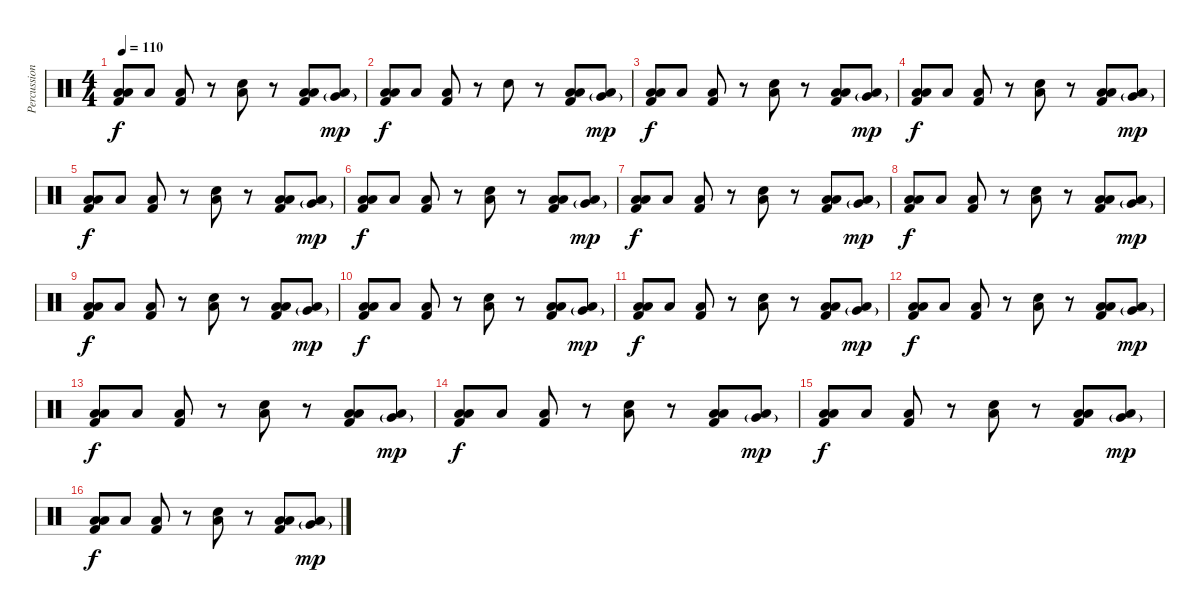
\track ("Percussions" "Percussion") {instrument percussion}
\staff {score}
\articulation defaults
\ts (4 4)
\tempo 110
\clef neutral
\ks c
("Low Tom (hit)" "Low Floor Tom (hit)" "Kick (hit) 2").8{dy f} "Low Floor Tom (hit)".8 ("Low Tom (hit)" "Kick (hit) 2").8 r.8 ("Low Floor Tom (hit)" "Snare (hit) 2").8 r.8 ("Low Tom (hit)" "Low Floor Tom (hit)" "Kick (hit) 2").8 ("Very Low Tom (hit)"{g} "Low Floor Tom (hit)").8{dy mp} |
("Low Tom (hit)" "Low Floor Tom (hit)" "Kick (hit) 2").8{dy f} "Low Floor Tom (hit)".8 ("Low Tom (hit)" "Kick (hit) 2").8 r.8 "Snare (hit) 2".8 r.8 ("Low Tom (hit)" "Low Floor Tom (hit)" "Kick (hit) 2").8 ("Very Low Tom (hit)"{g} "Low Floor Tom (hit)").8{dy mp} |
("Low Tom (hit)" "Low Floor Tom (hit)" "Kick (hit) 2").8{dy f} "Low Floor Tom (hit)".8 ("Low Tom (hit)" "Kick (hit) 2").8 r.8 ("Low Floor Tom (hit)" "Snare (hit) 2").8 r.8 ("Low Tom (hit)" "Low Floor Tom (hit)" "Kick (hit) 2").8 ("Very Low Tom (hit)"{g} "Low Floor Tom (hit)").8{dy mp} |
("Low Tom (hit)" "Low Floor Tom (hit)" "Kick (hit) 2").8{dy f} "Low Floor Tom (hit)".8 ("Low Tom (hit)" "Kick (hit) 2").8 r.8 ("Low Floor Tom (hit)" "Snare (hit) 2").8 r.8 ("Low Tom (hit)" "Low Floor Tom (hit)" "Kick (hit) 2").8 ("Very Low Tom (hit)"{g} "Low Floor Tom (hit)").8{dy mp} |
("Low Tom (hit)" "Low Floor Tom (hit)" "Kick (hit) 2").8{dy f} "Low Floor Tom (hit)".8 ("Low Tom (hit)" "Kick (hit) 2").8 r.8 ("Low Floor Tom (hit)" "Snare (hit) 2").8 r.8 ("Low Tom (hit)" "Low Floor Tom (hit)" "Kick (hit) 2").8 ("Very Low Tom (hit)"{g} "Low Floor Tom (hit)").8{dy mp} |
("Low Tom (hit)" "Low Floor Tom (hit)" "Kick (hit) 2").8{dy f} "Low Floor Tom (hit)".8 ("Low Tom (hit)" "Kick (hit) 2").8 r.8 ("Low Floor Tom (hit)" "Snare (hit) 2").8 r.8 ("Low Tom (hit)" "Low Floor Tom (hit)" "Kick (hit) 2").8 ("Very Low Tom (hit)"{g} "Low Floor Tom (hit)").8{dy mp} |
("Low Tom (hit)" "Low Floor Tom (hit)" "Kick (hit) 2").8{dy f} "Low Floor Tom (hit)".8 ("Low Tom (hit)" "Kick (hit) 2").8 r.8 ("Low Floor Tom (hit)" "Snare (hit) 2").8 r.8 ("Low Tom (hit)" "Low Floor Tom (hit)" "Kick (hit) 2").8 ("Very Low Tom (hit)"{g} "Low Floor Tom (hit)").8{dy mp} |
("Low Tom (hit)" "Low Floor Tom (hit)" "Kick (hit) 2").8{dy f} "Low Floor Tom (hit)".8 ("Low Tom (hit)" "Kick (hit) 2").8 r.8 ("Low Floor Tom (hit)" "Snare (hit) 2").8 r.8 ("Low Tom (hit)" "Low Floor Tom (hit)" "Kick (hit) 2").8 ("Very Low Tom (hit)"{g} "Low Floor Tom (hit)").8{dy mp} |
("Low Tom (hit)" "Low Floor Tom (hit)" "Kick (hit) 2").8{dy f} "Low Floor Tom (hit)".8 ("Low Tom (hit)" "Kick (hit) 2").8 r.8 ("Low Floor Tom (hit)" "Snare (hit) 2").8 r.8 ("Low Tom (hit)" "Low Floor Tom (hit)" "Kick (hit) 2").8 ("Very Low Tom (hit)"{g} "Low Floor Tom (hit)").8{dy mp} |
("Low Tom (hit)" "Low Floor Tom (hit)" "Kick (hit) 2").8{dy f} "Low Floor Tom (hit)".8 ("Low Tom (hit)" "Kick (hit) 2").8 r.8 ("Low Floor Tom (hit)" "Snare (hit) 2").8 r.8 ("Low Tom (hit)" "Low Floor Tom (hit)" "Kick (hit) 2").8 ("Very Low Tom (hit)"{g} "Low Floor Tom (hit)").8{dy mp} |
("Low Tom (hit)" "Low Floor Tom (hit)" "Kick (hit) 2").8{dy f} "Low Floor Tom (hit)".8 ("Low Tom (hit)" "Kick (hit) 2").8 r.8 ("Low Floor Tom (hit)" "Snare (hit) 2").8 r.8 ("Low Tom (hit)" "Low Floor Tom (hit)" "Kick (hit) 2").8 ("Very Low Tom (hit)"{g} "Low Floor Tom (hit)").8{dy mp} |
("Low Tom (hit)" "Low Floor Tom (hit)" "Kick (hit) 2").8{dy f} "Low Floor Tom (hit)".8 ("Low Tom (hit)" "Kick (hit) 2").8 r.8 ("Low Floor Tom (hit)" "Snare (hit) 2").8 r.8 ("Low Tom (hit)" "Low Floor Tom (hit)" "Kick (hit) 2").8 ("Very Low Tom (hit)"{g} "Low Floor Tom (hit)").8{dy mp} |
("Low Tom (hit)" "Low Floor Tom (hit)" "Kick (hit) 2").8{dy f} "Low Floor Tom (hit)".8 ("Low Tom (hit)" "Kick (hit) 2").8 r.8 ("Low Floor Tom (hit)" "Snare (hit) 2").8 r.8 ("Low Tom (hit)" "Low Floor Tom (hit)" "Kick (hit) 2").8 ("Very Low Tom (hit)"{g} "Low Floor Tom (hit)").8{dy mp} |
("Low Tom (hit)" "Low Floor Tom (hit)" "Kick (hit) 2").8{dy f} "Low Floor Tom (hit)".8 ("Low Tom (hit)" "Kick (hit) 2").8 r.8 ("Low Floor Tom (hit)" "Snare (hit) 2").8 r.8 ("Low Tom (hit)" "Low Floor Tom (hit)" "Kick (hit) 2").8 ("Very Low Tom (hit)"{g} "Low Floor Tom (hit)").8{dy mp} |
("Low Tom (hit)" "Low Floor Tom (hit)" "Kick (hit) 2").8{dy f} "Low Floor Tom (hit)".8 ("Low Tom (hit)" "Kick (hit) 2").8 r.8 ("Low Floor Tom (hit)" "Snare (hit) 2").8 r.8 ("Low Tom (hit)" "Low Floor Tom (hit)" "Kick (hit) 2").8 ("Very Low Tom (hit)"{g} "Low Floor Tom (hit)").8{dy mp} |
("Low Tom (hit)" "Low Floor Tom (hit)" "Kick (hit) 2").8{dy f} "Low Floor Tom (hit)".8 ("Low Tom (hit)" "Kick (hit) 2").8 r.8 ("Low Floor Tom (hit)" "Snare (hit) 2").8 r.8 ("Low Tom (hit)" "Low Floor Tom (hit)" "Kick (hit) 2").8 ("Very Low Tom (hit)"{g} "Low Floor Tom (hit)").8{dy mp}
